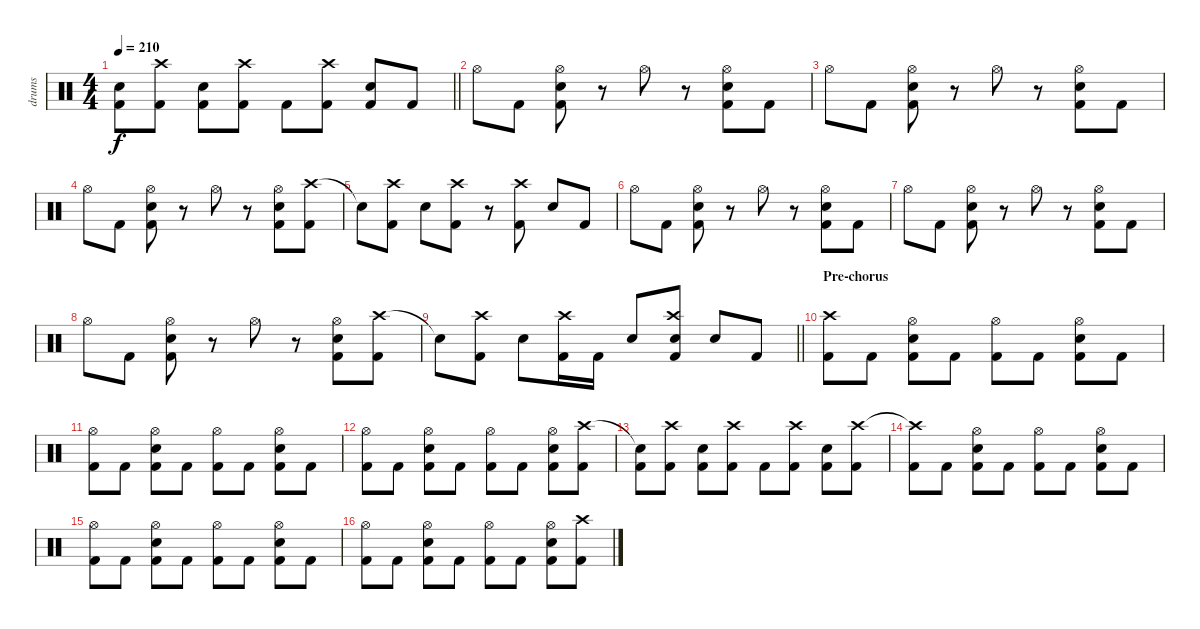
\track ("drums" "drums") {solo instrument percussion}
\staff {score}
\articulation defaults
\ts (4 4)
\tempo 210
\clef neutral
\barLineRight lightlight
\ks c
("Snare (hit)"{t} "Kick (hit) 2").8{dy f} ("Crash high (hit)" "Kick (hit) 2").8 ("Electric Snare (hit)" "Kick (hit) 2").8 ("Crash high (hit)" "Kick (hit) 2").8 "Kick (hit) 2".8 ("Crash high (hit)" "Kick (hit) 2").8 ("Electric Snare (hit)" "Kick (hit) 2").8 "Kick (hit) 2".8 |
"Hi-Hat (open)".8 "Kick (hit) 2".8 ("Hi-Hat (open)" "Electric Snare (hit)" "Kick (hit) 2").8 r.8 "Hi-Hat (open)".8 r.8 ("Hi-Hat (open)" "Electric Snare (hit)" "Kick (hit) 2").8 "Kick (hit) 2".8 |
"Hi-Hat (open)".8 "Kick (hit) 2".8 ("Hi-Hat (open)" "Electric Snare (hit)" "Kick (hit) 2").8 r.8 "Hi-Hat (open)".8 r.8 ("Hi-Hat (open)" "Electric Snare (hit)" "Kick (hit) 2").8 "Kick (hit) 2".8 |
"Hi-Hat (open)".8 "Kick (hit) 2".8 ("Hi-Hat (open)" "Electric Snare (hit)" "Kick (hit) 2").8 r.8 "Hi-Hat (open)".8 r.8 ("Hi-Hat (open)" "Electric Snare (hit)" "Kick (hit) 2").8 ("Crash high (hit)" "Kick (hit) 2").8 |
"Snare (hit)"{t}.8 ("Crash high (hit)" "Kick (hit) 2").8 "Electric Snare (hit)".8 ("Crash high (hit)" "Kick (hit) 2").8 r.8 ("Crash high (hit)" "Kick (hit) 2").8 "Electric Snare (hit)".8 "Kick (hit) 2".8 |
"Hi-Hat (open)".8 "Kick (hit) 2".8 ("Hi-Hat (open)" "Electric Snare (hit)" "Kick (hit) 2").8 r.8 "Hi-Hat (open)".8 r.8 ("Hi-Hat (open)" "Electric Snare (hit)" "Kick (hit) 2").8 "Kick (hit) 2".8 |
"Hi-Hat (open)".8 "Kick (hit) 2".8 ("Hi-Hat (open)" "Electric Snare (hit)" "Kick (hit) 2").8 r.8 "Hi-Hat (open)".8 r.8 ("Hi-Hat (open)" "Electric Snare (hit)" "Kick (hit) 2").8 "Kick (hit) 2".8 |
"Hi-Hat (open)".8 "Kick (hit) 2".8 ("Hi-Hat (open)" "Electric Snare (hit)" "Kick (hit) 2").8 r.8 "Hi-Hat (open)".8 r.8 ("Hi-Hat (open)" "Electric Snare (hit)" "Kick (hit) 2").8 ("Crash high (hit)" "Kick (hit) 2").8 |
\barLineRight lightlight "Snare (hit)"{t}.8
("Crash high (hit)" "Kick (hit) 2").8 "Electric Snare (hit)".8 ("Crash high (hit)" "Kick (hit) 2").16 "Kick (hit) 2".16 "Electric Snare (hit)".8 ("Crash high (hit)" "Electric Snare (hit)" "Kick (hit) 2").8 "Electric Snare (hit)".8 "Kick (hit) 2".8 |
\section ("" "Pre-chorus")
("Crash high (hit)" "Kick (hit) 2").8 "Kick (hit) 2".8 ("Hi-Hat (open)" "Electric Snare (hit)" "Kick (hit) 2").8 "Kick (hit) 2".8 ("Hi-Hat (open)" "Kick (hit) 2").8 "Kick (hit) 2".8 ("Hi-Hat (open)" "Electric Snare (hit)" "Kick (hit) 2").8 "Kick (hit) 2".8 |
("Hi-Hat (open)" "Kick (hit) 2").8 "Kick (hit) 2".8 ("Hi-Hat (open)" "Electric Snare (hit)" "Kick (hit) 2").8 "Kick (hit) 2".8 ("Hi-Hat (open)" "Kick (hit) 2").8 "Kick (hit) 2".8 ("Hi-Hat (open)" "Electric Snare (hit)" "Kick (hit) 2").8 "Kick (hit) 2".8 |
("Hi-Hat (open)" "Kick (hit) 2").8 "Kick (hit) 2".8 ("Hi-Hat (open)" "Electric Snare (hit)" "Kick (hit) 2").8 "Kick (hit) 2".8 ("Hi-Hat (open)" "Kick (hit) 2").8 "Kick (hit) 2".8 ("Hi-Hat (open)" "Electric Snare (hit)" "Kick (hit) 2").8 ("Crash high (hit)" "Kick (hit) 2").8 |
("Snare (hit)"{t} "Kick (hit) 2").8 ("Crash high (hit)" "Kick (hit) 2").8 ("Electric Snare (hit)" "Kick (hit) 2").8 ("Crash high (hit)" "Kick (hit) 2").8 "Kick (hit) 2".8 ("Crash high (hit)" "Kick (hit) 2").8 ("Electric Snare (hit)" "Kick (hit) 2").8 ("Crash high (hit)" "Kick (hit) 2").8 |
("Crash high (hit)"{t} "Kick (hit) 2").8 "Kick (hit) 2".8 ("Hi-Hat (open)" "Electric Snare (hit)" "Kick (hit) 2").8 "Kick (hit) 2".8 ("Hi-Hat (open)" "Kick (hit) 2").8 "Kick (hit) 2".8 ("Hi-Hat (open)" "Electric Snare (hit)" "Kick (hit) 2").8 "Kick (hit) 2".8 |
("Hi-Hat (open)" "Kick (hit) 2").8 "Kick (hit) 2".8 ("Hi-Hat (open)" "Electric Snare (hit)" "Kick (hit) 2").8 "Kick (hit) 2".8 ("Hi-Hat (open)" "Kick (hit) 2").8 "Kick (hit) 2".8 ("Hi-Hat (open)" "Electric Snare (hit)" "Kick (hit) 2").8 "Kick (hit) 2".8 |
("Hi-Hat (open)" "Kick (hit) 2").8 "Kick (hit) 2".8 ("Hi-Hat (open)" "Electric Snare (hit)" "Kick (hit) 2").8 "Kick (hit) 2".8 ("Hi-Hat (open)" "Kick (hit) 2").8 "Kick (hit) 2".8 ("Hi-Hat (open)" "Electric Snare (hit)" "Kick (hit) 2").8 ("Crash high (hit)" "Kick (hit) 2").8
